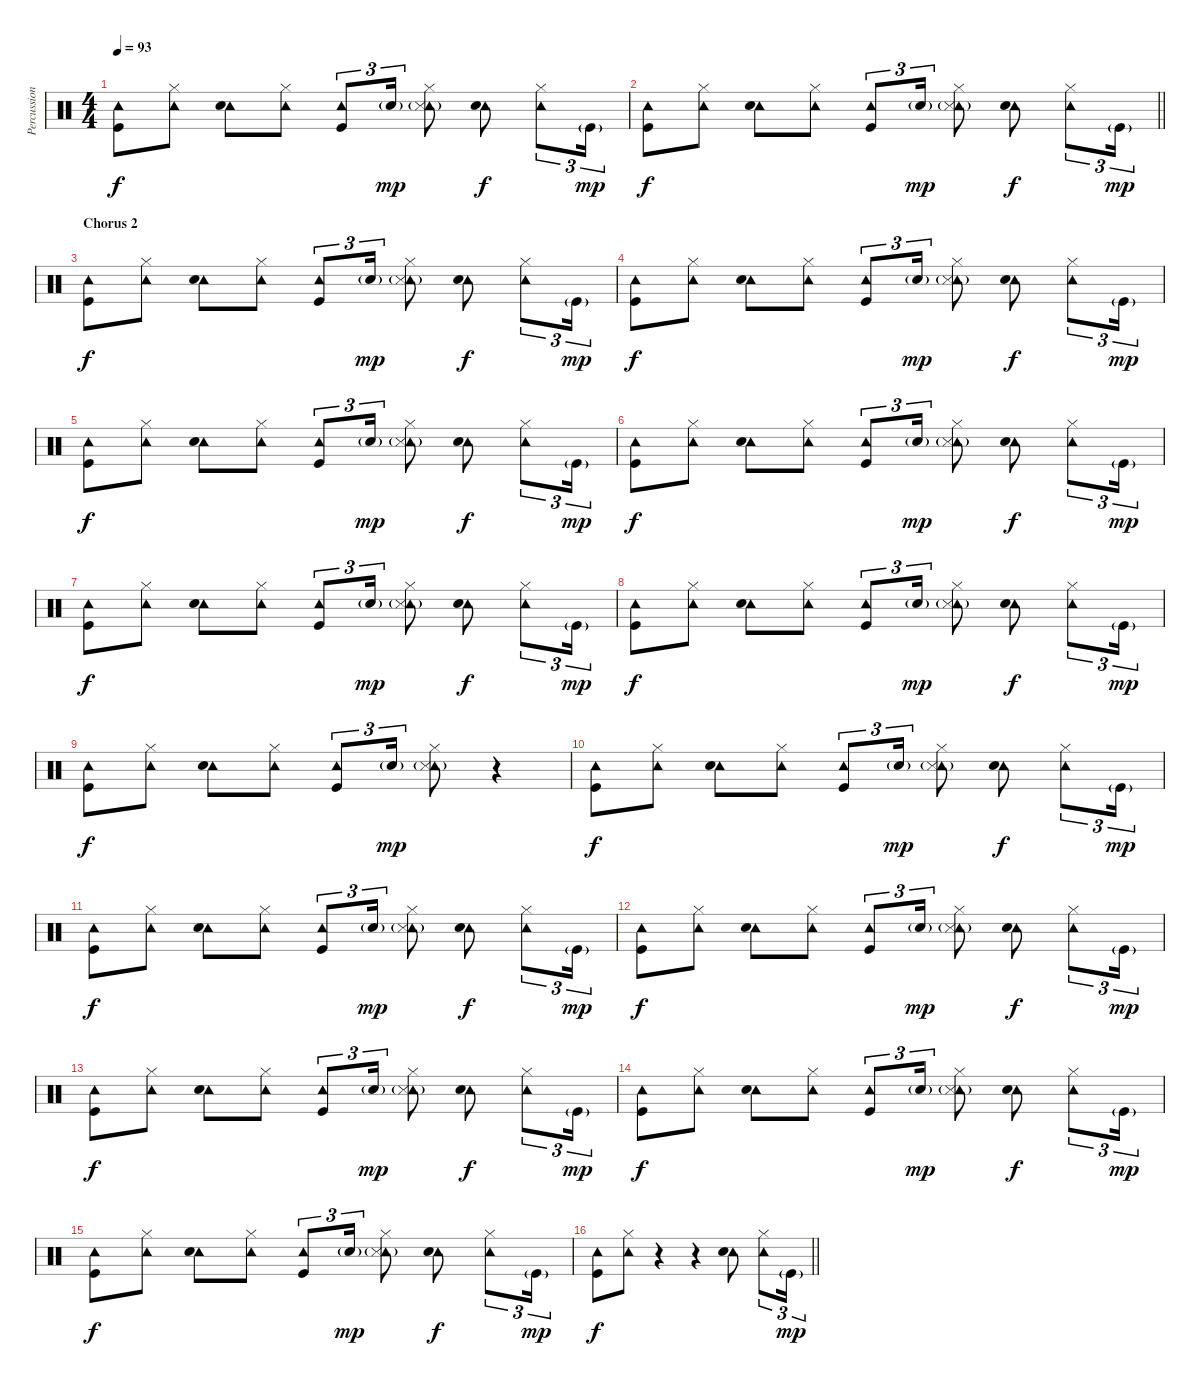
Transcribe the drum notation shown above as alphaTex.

\track ("Percussion" "Percussion") {instrument percussion}
\staff {score}
\articulation defaults
\ts (4 4)
\tempo 93
\clef neutral
\ks c
("Tambourine (hit)" "Kick (hit)").8{dy f} ("Tambourine (hit)" "Hi-Hat (closed)").8 ("Tambourine (hit)" "Electric Snare (hit)").8 ("Tambourine (hit)" "Hi-Hat (closed)").8 ("Tambourine (hit)" "Kick (hit)").8{tu (3 2)} "Electric Snare (hit)"{g}.16{tu (3 2) dy mp} ("Tambourine (hit)" "Hi-Hat (closed)" "Snare (side stick) 3"{g}).8 ("Tambourine (hit)" "Electric Snare (hit)").8{dy f} ("Tambourine (hit)" "Hi-Hat (closed)").8{tu (3 2)} "Kick (hit)"{g}.16{tu (3 2) dy mp} |
\barLineRight lightlight
("Tambourine (hit)" "Kick (hit)").8{dy f} ("Tambourine (hit)" "Hi-Hat (closed)").8 ("Tambourine (hit)" "Electric Snare (hit)").8 ("Tambourine (hit)" "Hi-Hat (closed)").8 ("Tambourine (hit)" "Kick (hit)").8{tu (3 2)} "Electric Snare (hit)"{g}.16{tu (3 2) dy mp} ("Tambourine (hit)" "Hi-Hat (closed)" "Snare (side stick) 3"{g}).8 ("Tambourine (hit)" "Electric Snare (hit)").8{dy f} ("Tambourine (hit)" "Hi-Hat (closed)").8{tu (3 2)} "Kick (hit)"{g}.16{tu (3 2) dy mp} |
\section ("" "Chorus 2")
("Tambourine (hit)" "Kick (hit)").8{dy f} ("Tambourine (hit)" "Hi-Hat (closed)").8 ("Tambourine (hit)" "Electric Snare (hit)").8 ("Tambourine (hit)" "Hi-Hat (closed)").8 ("Tambourine (hit)" "Kick (hit)").8{tu (3 2)} "Electric Snare (hit)"{g}.16{tu (3 2) dy mp} ("Tambourine (hit)" "Hi-Hat (closed)" "Snare (side stick) 3"{g}).8 ("Tambourine (hit)" "Electric Snare (hit)").8{dy f} ("Tambourine (hit)" "Hi-Hat (closed)").8{tu (3 2)} "Kick (hit)"{g}.16{tu (3 2) dy mp} |
("Tambourine (hit)" "Kick (hit)").8{dy f} ("Tambourine (hit)" "Hi-Hat (closed)").8 ("Tambourine (hit)" "Electric Snare (hit)").8 ("Tambourine (hit)" "Hi-Hat (closed)").8 ("Tambourine (hit)" "Kick (hit)").8{tu (3 2)} "Electric Snare (hit)"{g}.16{tu (3 2) dy mp} ("Tambourine (hit)" "Hi-Hat (closed)" "Snare (side stick) 3"{g}).8 ("Tambourine (hit)" "Electric Snare (hit)").8{dy f} ("Tambourine (hit)" "Hi-Hat (closed)").8{tu (3 2)} "Kick (hit)"{g}.16{tu (3 2) dy mp} |
("Tambourine (hit)" "Kick (hit)").8{dy f} ("Tambourine (hit)" "Hi-Hat (closed)").8 ("Tambourine (hit)" "Electric Snare (hit)").8 ("Tambourine (hit)" "Hi-Hat (closed)").8 ("Tambourine (hit)" "Kick (hit)").8{tu (3 2)} "Electric Snare (hit)"{g}.16{tu (3 2) dy mp} ("Tambourine (hit)" "Hi-Hat (closed)" "Snare (side stick) 3"{g}).8 ("Tambourine (hit)" "Electric Snare (hit)").8{dy f} ("Tambourine (hit)" "Hi-Hat (closed)").8{tu (3 2)} "Kick (hit)"{g}.16{tu (3 2) dy mp} |
("Tambourine (hit)" "Kick (hit)").8{dy f} ("Tambourine (hit)" "Hi-Hat (closed)").8 ("Tambourine (hit)" "Electric Snare (hit)").8 ("Tambourine (hit)" "Hi-Hat (closed)").8 ("Tambourine (hit)" "Kick (hit)").8{tu (3 2)} "Electric Snare (hit)"{g}.16{tu (3 2) dy mp} ("Tambourine (hit)" "Hi-Hat (closed)" "Snare (side stick) 3"{g}).8 ("Tambourine (hit)" "Electric Snare (hit)").8{dy f} ("Tambourine (hit)" "Hi-Hat (closed)").8{tu (3 2)} "Kick (hit)"{g}.16{tu (3 2) dy mp} |
("Tambourine (hit)" "Kick (hit)").8{dy f} ("Tambourine (hit)" "Hi-Hat (closed)").8 ("Tambourine (hit)" "Electric Snare (hit)").8 ("Tambourine (hit)" "Hi-Hat (closed)").8 ("Tambourine (hit)" "Kick (hit)").8{tu (3 2)} "Electric Snare (hit)"{g}.16{tu (3 2) dy mp} ("Tambourine (hit)" "Hi-Hat (closed)" "Snare (side stick) 3"{g}).8 ("Tambourine (hit)" "Electric Snare (hit)").8{dy f} ("Tambourine (hit)" "Hi-Hat (closed)").8{tu (3 2)} "Kick (hit)"{g}.16{tu (3 2) dy mp} |
("Tambourine (hit)" "Kick (hit)").8{dy f} ("Tambourine (hit)" "Hi-Hat (closed)").8 ("Tambourine (hit)" "Electric Snare (hit)").8 ("Tambourine (hit)" "Hi-Hat (closed)").8 ("Tambourine (hit)" "Kick (hit)").8{tu (3 2)} "Electric Snare (hit)"{g}.16{tu (3 2) dy mp} ("Tambourine (hit)" "Hi-Hat (closed)" "Snare (side stick) 3"{g}).8 ("Tambourine (hit)" "Electric Snare (hit)").8{dy f} ("Tambourine (hit)" "Hi-Hat (closed)").8{tu (3 2)} "Kick (hit)"{g}.16{tu (3 2) dy mp} |
("Tambourine (hit)" "Kick (hit)").8{dy f} ("Tambourine (hit)" "Hi-Hat (closed)").8 ("Tambourine (hit)" "Electric Snare (hit)").8 ("Tambourine (hit)" "Hi-Hat (closed)").8 ("Tambourine (hit)" "Kick (hit)").8{tu (3 2)} "Electric Snare (hit)"{g}.16{tu (3 2) dy mp} ("Tambourine (hit)" "Hi-Hat (closed)" "Snare (side stick) 3"{g}).8 r.4 |
("Tambourine (hit)" "Kick (hit)").8{dy f} ("Tambourine (hit)" "Hi-Hat (closed)").8 ("Tambourine (hit)" "Electric Snare (hit)").8 ("Tambourine (hit)" "Hi-Hat (closed)").8 ("Tambourine (hit)" "Kick (hit)").8{tu (3 2)} "Electric Snare (hit)"{g}.16{tu (3 2) dy mp} ("Tambourine (hit)" "Hi-Hat (closed)" "Snare (side stick) 3"{g}).8 ("Tambourine (hit)" "Electric Snare (hit)").8{dy f} ("Tambourine (hit)" "Hi-Hat (closed)").8{tu (3 2)} "Kick (hit)"{g}.16{tu (3 2) dy mp} |
("Tambourine (hit)" "Kick (hit)").8{dy f} ("Tambourine (hit)" "Hi-Hat (closed)").8 ("Tambourine (hit)" "Electric Snare (hit)").8 ("Tambourine (hit)" "Hi-Hat (closed)").8 ("Tambourine (hit)" "Kick (hit)").8{tu (3 2)} "Electric Snare (hit)"{g}.16{tu (3 2) dy mp} ("Tambourine (hit)" "Hi-Hat (closed)" "Snare (side stick) 3"{g}).8 ("Tambourine (hit)" "Electric Snare (hit)").8{dy f} ("Tambourine (hit)" "Hi-Hat (closed)").8{tu (3 2)} "Kick (hit)"{g}.16{tu (3 2) dy mp} |
("Tambourine (hit)" "Kick (hit)").8{dy f} ("Tambourine (hit)" "Hi-Hat (closed)").8 ("Tambourine (hit)" "Electric Snare (hit)").8 ("Tambourine (hit)" "Hi-Hat (closed)").8 ("Tambourine (hit)" "Kick (hit)").8{tu (3 2)} "Electric Snare (hit)"{g}.16{tu (3 2) dy mp} ("Tambourine (hit)" "Hi-Hat (closed)" "Snare (side stick) 3"{g}).8 ("Tambourine (hit)" "Electric Snare (hit)").8{dy f} ("Tambourine (hit)" "Hi-Hat (closed)").8{tu (3 2)} "Kick (hit)"{g}.16{tu (3 2) dy mp} |
("Tambourine (hit)" "Kick (hit)").8{dy f} ("Tambourine (hit)" "Hi-Hat (closed)").8 ("Tambourine (hit)" "Electric Snare (hit)").8 ("Tambourine (hit)" "Hi-Hat (closed)").8 ("Tambourine (hit)" "Kick (hit)").8{tu (3 2)} "Electric Snare (hit)"{g}.16{tu (3 2) dy mp} ("Tambourine (hit)" "Hi-Hat (closed)" "Snare (side stick) 3"{g}).8 ("Tambourine (hit)" "Electric Snare (hit)").8{dy f} ("Tambourine (hit)" "Hi-Hat (closed)").8{tu (3 2)} "Kick (hit)"{g}.16{tu (3 2) dy mp} |
("Tambourine (hit)" "Kick (hit)").8{dy f} ("Tambourine (hit)" "Hi-Hat (closed)").8 ("Tambourine (hit)" "Electric Snare (hit)").8 ("Tambourine (hit)" "Hi-Hat (closed)").8 ("Tambourine (hit)" "Kick (hit)").8{tu (3 2)} "Electric Snare (hit)"{g}.16{tu (3 2) dy mp} ("Tambourine (hit)" "Hi-Hat (closed)" "Snare (side stick) 3"{g}).8 ("Tambourine (hit)" "Electric Snare (hit)").8{dy f} ("Tambourine (hit)" "Hi-Hat (closed)").8{tu (3 2)} "Kick (hit)"{g}.16{tu (3 2) dy mp} |
("Tambourine (hit)" "Kick (hit)").8{dy f} ("Tambourine (hit)" "Hi-Hat (closed)").8 ("Tambourine (hit)" "Electric Snare (hit)").8 ("Tambourine (hit)" "Hi-Hat (closed)").8 ("Tambourine (hit)" "Kick (hit)").8{tu (3 2)} "Electric Snare (hit)"{g}.16{tu (3 2) dy mp} ("Tambourine (hit)" "Hi-Hat (closed)" "Snare (side stick) 3"{g}).8 ("Tambourine (hit)" "Electric Snare (hit)").8{dy f} ("Tambourine (hit)" "Hi-Hat (closed)").8{tu (3 2)} "Kick (hit)"{g}.16{tu (3 2) dy mp} |
\barLineRight lightlight
("Tambourine (hit)" "Kick (hit)").8{dy f} ("Tambourine (hit)" "Hi-Hat (closed)").8 r.4 r.4 ("Tambourine (hit)" "Electric Snare (hit)").8 ("Tambourine (hit)" "Hi-Hat (closed)").8{tu (3 2)} "Kick (hit)"{g}.16{tu (3 2) dy mp}
